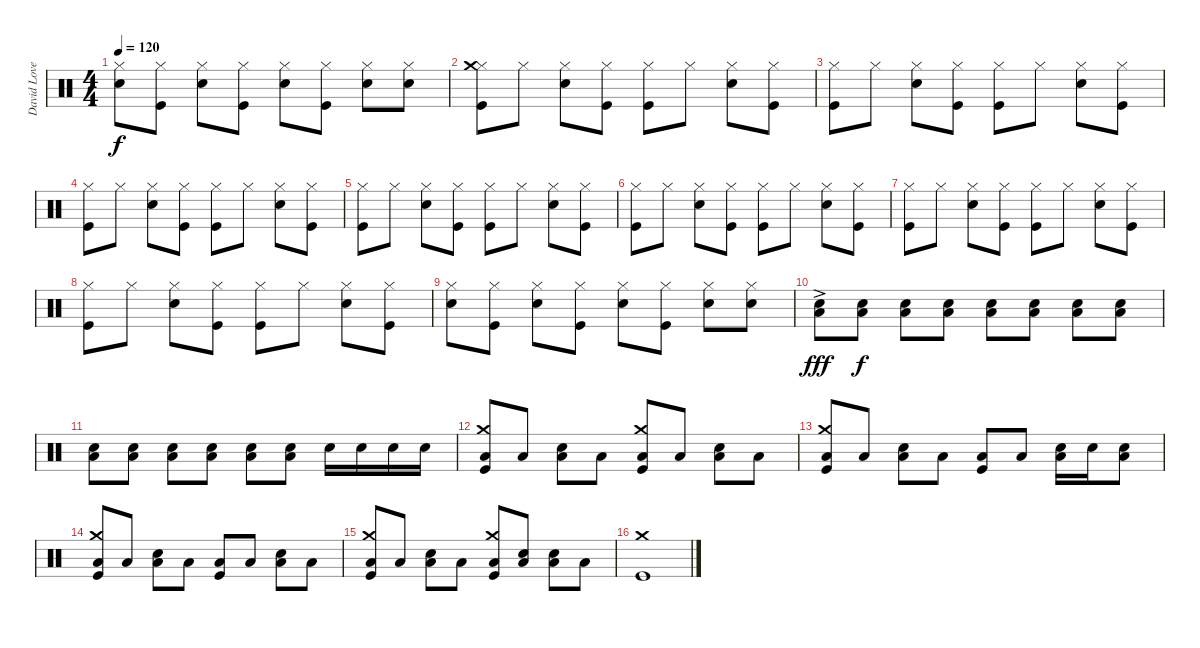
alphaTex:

\track ("David Lovering" "David Love") {instrument percussion}
\staff {score}
\articulation defaults
\ts (4 4)
\tempo 120
\clef neutral
\ks c
("Hi-Hat (closed)" "Snare (hit) 2").8{dy f} ("Hi-Hat (closed)" "Kick (hit)").8 ("Hi-Hat (closed)" "Snare (hit) 2").8 ("Hi-Hat (closed)" "Kick (hit)").8 ("Hi-Hat (closed)" "Snare (hit) 2").8 ("Hi-Hat (closed)" "Kick (hit)").8 ("Hi-Hat (closed)" "Snare (hit) 2").8 ("Hi-Hat (closed)" "Snare (hit) 2").8 |
("Hi-Hat (closed)" "Crash medium (hit)" "Kick (hit)").8 "Hi-Hat (closed)".8 ("Hi-Hat (closed)" "Snare (hit) 2").8 ("Hi-Hat (closed)" "Kick (hit)").8 ("Hi-Hat (closed)" "Kick (hit)").8 "Hi-Hat (closed)".8 ("Hi-Hat (closed)" "Snare (hit) 2").8 ("Hi-Hat (closed)" "Kick (hit)").8 |
("Hi-Hat (closed)" "Kick (hit)").8 "Hi-Hat (closed)".8 ("Hi-Hat (closed)" "Snare (hit) 2").8 ("Hi-Hat (closed)" "Kick (hit)").8 ("Hi-Hat (closed)" "Kick (hit)").8 "Hi-Hat (closed)".8 ("Hi-Hat (closed)" "Snare (hit) 2").8 ("Hi-Hat (closed)" "Kick (hit)").8 |
("Hi-Hat (closed)" "Kick (hit)").8 "Hi-Hat (closed)".8 ("Hi-Hat (closed)" "Snare (hit) 2").8 ("Hi-Hat (closed)" "Kick (hit)").8 ("Hi-Hat (closed)" "Kick (hit)").8 "Hi-Hat (closed)".8 ("Hi-Hat (closed)" "Snare (hit) 2").8 ("Hi-Hat (closed)" "Kick (hit)").8 |
("Hi-Hat (closed)" "Kick (hit)").8 "Hi-Hat (closed)".8 ("Hi-Hat (closed)" "Snare (hit) 2").8 ("Hi-Hat (closed)" "Kick (hit)").8 ("Hi-Hat (closed)" "Kick (hit)").8 "Hi-Hat (closed)".8 ("Hi-Hat (closed)" "Snare (hit) 2").8 ("Hi-Hat (closed)" "Kick (hit)").8 |
("Hi-Hat (closed)" "Kick (hit)").8 "Hi-Hat (closed)".8 ("Hi-Hat (closed)" "Snare (hit) 2").8 ("Hi-Hat (closed)" "Kick (hit)").8 ("Hi-Hat (closed)" "Kick (hit)").8 "Hi-Hat (closed)".8 ("Hi-Hat (closed)" "Snare (hit) 2").8 ("Hi-Hat (closed)" "Kick (hit)").8 |
("Hi-Hat (closed)" "Kick (hit)").8 "Hi-Hat (closed)".8 ("Hi-Hat (closed)" "Snare (hit) 2").8 ("Hi-Hat (closed)" "Kick (hit)").8 ("Hi-Hat (closed)" "Kick (hit)").8 "Hi-Hat (closed)".8 ("Hi-Hat (closed)" "Snare (hit) 2").8 ("Hi-Hat (closed)" "Kick (hit)").8 |
("Hi-Hat (closed)" "Kick (hit)").8 "Hi-Hat (closed)".8 ("Hi-Hat (closed)" "Snare (hit) 2").8 ("Hi-Hat (closed)" "Kick (hit)").8 ("Hi-Hat (closed)" "Kick (hit)").8 "Hi-Hat (closed)".8 ("Hi-Hat (closed)" "Snare (hit) 2").8 ("Hi-Hat (closed)" "Kick (hit)").8 |
("Hi-Hat (closed)" "Snare (hit) 2").8 ("Hi-Hat (closed)" "Kick (hit)").8 ("Hi-Hat (closed)" "Snare (hit) 2").8 ("Hi-Hat (closed)" "Kick (hit)").8 ("Hi-Hat (closed)" "Snare (hit) 2").8 ("Hi-Hat (closed)" "Kick (hit)").8 ("Hi-Hat (closed)" "Snare (hit) 2").8 ("Hi-Hat (closed)" "Snare (hit) 2").8 |
\section ("" "")
("Snare (hit) 2"{ac} "Low Floor Tom (hit)").8{dy fff} ("Snare (hit) 2" "Low Floor Tom (hit)").8{dy f} ("Snare (hit) 2" "Low Floor Tom (hit)").8 ("Snare (hit) 2" "Low Floor Tom (hit)").8 ("Snare (hit) 2" "Low Floor Tom (hit)").8 ("Snare (hit) 2" "Low Floor Tom (hit)").8 ("Snare (hit) 2" "Low Floor Tom (hit)").8 ("Snare (hit) 2" "Low Floor Tom (hit)").8 |
("Snare (hit) 2" "Low Floor Tom (hit)").8 ("Snare (hit) 2" "Low Floor Tom (hit)").8 ("Snare (hit) 2" "Low Floor Tom (hit)").8 ("Snare (hit) 2" "Low Floor Tom (hit)").8 ("Snare (hit) 2" "Low Floor Tom (hit)").8 ("Snare (hit) 2" "Low Floor Tom (hit)").8 "Snare (hit) 2".16 "Snare (hit) 2".16 "Snare (hit) 2".16 "Snare (hit) 2".16 |
("Low Floor Tom (hit)" "Crash medium (hit)" "Kick (hit)").8 "Low Floor Tom (hit)".8 ("Low Floor Tom (hit)" "Snare (hit) 2").8 "Low Floor Tom (hit)".8 ("Low Floor Tom (hit)" "Crash medium (hit)" "Kick (hit)").8 "Low Floor Tom (hit)".8 ("Low Floor Tom (hit)" "Snare (hit) 2").8 "Low Floor Tom (hit)".8 |
("Low Floor Tom (hit)" "Crash medium (hit)" "Kick (hit)").8 "Low Floor Tom (hit)".8 ("Low Floor Tom (hit)" "Snare (hit) 2").8 "Low Floor Tom (hit)".8 ("Low Floor Tom (hit)" "Kick (hit)").8 "Low Floor Tom (hit)".8 ("Low Floor Tom (hit)" "Snare (hit) 2").16 "Snare (hit) 2".16 ("Low Floor Tom (hit)" "Snare (hit) 2").8 |
("Low Floor Tom (hit)" "Crash medium (hit)" "Kick (hit)").8 "Low Floor Tom (hit)".8 ("Low Floor Tom (hit)" "Snare (hit) 2").8 "Low Floor Tom (hit)".8 ("Low Floor Tom (hit)" "Kick (hit)").8 "Low Floor Tom (hit)".8 ("Low Floor Tom (hit)" "Snare (hit) 2").8 "Low Floor Tom (hit)".8 |
("Low Floor Tom (hit)" "Crash medium (hit)" "Kick (hit)").8 "Low Floor Tom (hit)".8 ("Low Floor Tom (hit)" "Snare (hit) 2").8 "Low Floor Tom (hit)".8 ("Low Floor Tom (hit)" "Crash medium (hit)" "Kick (hit)").8 ("Low Floor Tom (hit)" "Snare (hit) 2").8 ("Low Floor Tom (hit)" "Snare (hit) 2").8 "Low Floor Tom (hit)".8 |
("Crash medium (hit)" "Kick (hit)").1
